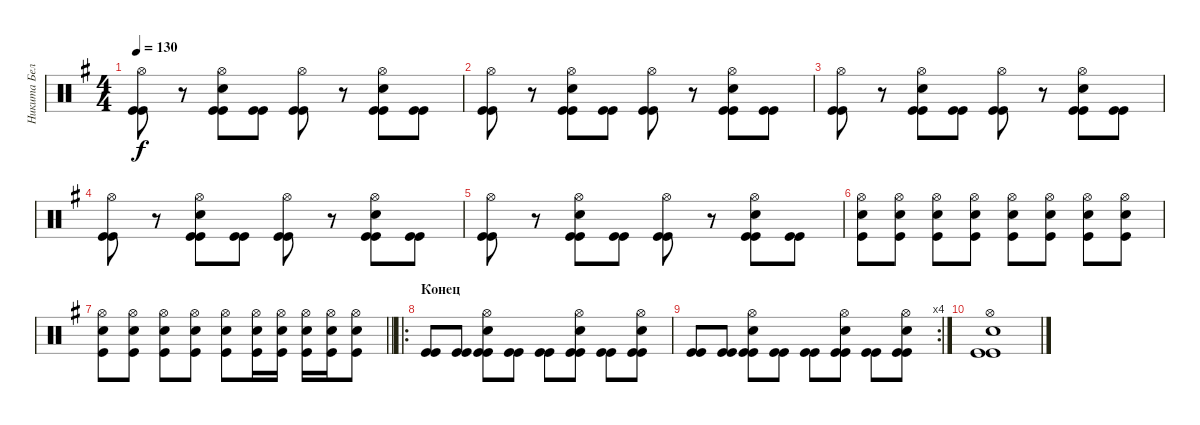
\track ("Никита Белозёров" "Никита Бел") {instrument percussion}
\staff {score}
\articulation defaults
\ts (4 4)
\tempo 130
\clef neutral
\ks eminor
("Hi-Hat (open)" "Kick (hit)" "Kick (hit)").8{dy f} r.8 ("Hi-Hat (open)" "Kick (hit)" "Kick (hit)" "Snare (hit) 2").8 ("Kick (hit)" "Kick (hit)").8 ("Hi-Hat (open)" "Kick (hit)" "Kick (hit)").8 r.8 ("Hi-Hat (open)" "Kick (hit)" "Kick (hit)" "Snare (hit) 2").8 ("Kick (hit)" "Kick (hit)").8 |
("Hi-Hat (open)" "Kick (hit)" "Kick (hit)").8 r.8 ("Hi-Hat (open)" "Kick (hit)" "Kick (hit)" "Snare (hit) 2").8 ("Kick (hit)" "Kick (hit)").8 ("Hi-Hat (open)" "Kick (hit)" "Kick (hit)").8 r.8 ("Hi-Hat (open)" "Kick (hit)" "Kick (hit)" "Snare (hit) 2").8 ("Kick (hit)" "Kick (hit)").8 |
("Hi-Hat (open)" "Kick (hit)" "Kick (hit)").8 r.8 ("Hi-Hat (open)" "Kick (hit)" "Kick (hit)" "Snare (hit) 2").8 ("Kick (hit)" "Kick (hit)").8 ("Hi-Hat (open)" "Kick (hit)" "Kick (hit)").8 r.8 ("Hi-Hat (open)" "Kick (hit)" "Kick (hit)" "Snare (hit) 2").8 ("Kick (hit)" "Kick (hit)").8 |
("Hi-Hat (open)" "Kick (hit)" "Kick (hit)").8 r.8 ("Hi-Hat (open)" "Kick (hit)" "Kick (hit)" "Snare (hit) 2").8 ("Kick (hit)" "Kick (hit)").8 ("Hi-Hat (open)" "Kick (hit)" "Kick (hit)").8 r.8 ("Hi-Hat (open)" "Kick (hit)" "Kick (hit)" "Snare (hit) 2").8 ("Kick (hit)" "Kick (hit)").8 |
("Hi-Hat (open)" "Kick (hit)" "Kick (hit)").8 r.8 ("Hi-Hat (open)" "Kick (hit)" "Kick (hit)" "Snare (hit) 2").8 ("Kick (hit)" "Kick (hit)").8 ("Hi-Hat (open)" "Kick (hit)" "Kick (hit)").8 r.8 ("Hi-Hat (open)" "Kick (hit)" "Kick (hit)" "Snare (hit) 2").8 ("Kick (hit)" "Kick (hit)").8 |
("Hi-Hat (open)" "Kick (hit)" "Snare (hit) 2").8 ("Hi-Hat (open)" "Kick (hit)" "Snare (hit) 2").8 ("Hi-Hat (open)" "Kick (hit)" "Snare (hit) 2").8 ("Hi-Hat (open)" "Kick (hit)" "Snare (hit) 2").8 ("Hi-Hat (open)" "Kick (hit)" "Snare (hit) 2").8 ("Hi-Hat (open)" "Kick (hit)" "Snare (hit) 2").8 ("Hi-Hat (open)" "Kick (hit)" "Snare (hit) 2").8 ("Hi-Hat (open)" "Kick (hit)" "Snare (hit) 2").8 |
\barLineRight lightlight
("Hi-Hat (open)" "Kick (hit)" "Snare (hit) 2").8 ("Hi-Hat (open)" "Kick (hit)" "Snare (hit) 2").8 ("Hi-Hat (open)" "Kick (hit)" "Snare (hit) 2").8 ("Hi-Hat (open)" "Kick (hit)" "Snare (hit) 2").8 ("Hi-Hat (open)" "Kick (hit)" "Snare (hit) 2").8 ("Hi-Hat (open)" "Kick (hit)" "Snare (hit) 2").16 ("Hi-Hat (open)" "Kick (hit)" "Snare (hit) 2").16 ("Hi-Hat (open)" "Kick (hit)" "Snare (hit) 2").16 ("Hi-Hat (open)" "Kick (hit)" "Snare (hit) 2").16 ("Hi-Hat (open)" "Kick (hit)" "Snare (hit) 2").8 |
\ro
\section ("" "Конец")
("Kick (hit)" "Kick (hit)").8 ("Kick (hit)" "Kick (hit)").8 ("Hi-Hat (open)" "Kick (hit)" "Kick (hit)" "Snare (hit) 2").8 ("Kick (hit)" "Kick (hit)").8 ("Kick (hit)" "Kick (hit)").8 ("Hi-Hat (open)" "Kick (hit)" "Kick (hit)" "Snare (hit) 2").8 ("Kick (hit)" "Kick (hit)").8 ("Hi-Hat (open)" "Kick (hit)" "Kick (hit)" "Snare (hit) 2").8 |
\rc 4
("Kick (hit)" "Kick (hit)").8 ("Kick (hit)" "Kick (hit)").8 ("Hi-Hat (open)" "Kick (hit)" "Kick (hit)" "Snare (hit) 2").8 ("Kick (hit)" "Kick (hit)").8 ("Kick (hit)" "Kick (hit)").8 ("Hi-Hat (open)" "Kick (hit)" "Kick (hit)" "Snare (hit) 2").8 ("Kick (hit)" "Kick (hit)").8 ("Hi-Hat (open)" "Kick (hit)" "Kick (hit)" "Snare (hit) 2").8 |
("Hi-Hat (open)" "Kick (hit)" "Kick (hit)" "Snare (hit) 2").1
